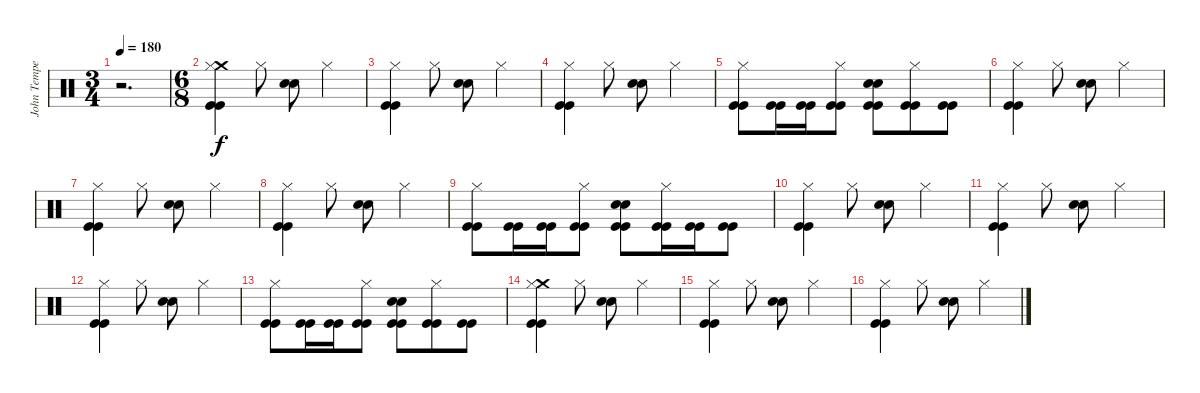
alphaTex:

\track ("John Tempesta" "John Tempe") {instrument percussion}
\staff {score}
\articulation defaults
\ts (3 4)
\tempo 180
\clef neutral
\ks c
r.2{d dy f} |
\ts (6 8)
("Crash medium (hit)" "Hi-Hat (closed)" "Kick (hit)" "Kick (hit)").4 "Hi-Hat (closed)".8 ("Snare (hit) 2" "Snare (hit) 2").8 "Hi-Hat (closed)".4 |
("Hi-Hat (closed)" "Kick (hit)" "Kick (hit)").4 "Hi-Hat (closed)".8 ("Snare (hit) 2" "Snare (hit) 2").8 "Hi-Hat (closed)".4 |
("Hi-Hat (closed)" "Kick (hit)" "Kick (hit)").4 "Hi-Hat (closed)".8 ("Snare (hit) 2" "Snare (hit) 2").8 "Hi-Hat (closed)".4 |
("Hi-Hat (closed)" "Kick (hit)" "Kick (hit)").8 ("Kick (hit)" "Kick (hit)").16 ("Kick (hit)" "Kick (hit)").16 ("Hi-Hat (closed)" "Kick (hit)" "Kick (hit)").8 ("Snare (hit) 2" "Snare (hit) 2" "Kick (hit)" "Kick (hit)").8 ("Hi-Hat (closed)" "Kick (hit)" "Kick (hit)").8 ("Kick (hit)" "Kick (hit)").8 |
("Hi-Hat (closed)" "Kick (hit)" "Kick (hit)").4 "Hi-Hat (closed)".8 ("Snare (hit) 2" "Snare (hit) 2").8 "Hi-Hat (closed)".4 |
("Hi-Hat (closed)" "Kick (hit)" "Kick (hit)").4 "Hi-Hat (closed)".8 ("Snare (hit) 2" "Snare (hit) 2").8 "Hi-Hat (closed)".4 |
("Hi-Hat (closed)" "Kick (hit)" "Kick (hit)").4 "Hi-Hat (closed)".8 ("Snare (hit) 2" "Snare (hit) 2").8 "Hi-Hat (closed)".4 |
("Hi-Hat (closed)" "Kick (hit)" "Kick (hit)").8 ("Kick (hit)" "Kick (hit)").16 ("Kick (hit)" "Kick (hit)").16 ("Hi-Hat (closed)" "Kick (hit)" "Kick (hit)").8 ("Snare (hit) 2" "Snare (hit) 2" "Kick (hit)" "Kick (hit)").8 ("Hi-Hat (closed)" "Kick (hit)" "Kick (hit)").16 ("Kick (hit)" "Kick (hit)").16 ("Kick (hit)" "Kick (hit)").8 |
("Hi-Hat (closed)" "Kick (hit)" "Kick (hit)").4 "Hi-Hat (closed)".8 ("Snare (hit) 2" "Snare (hit) 2").8 "Hi-Hat (closed)".4 |
("Hi-Hat (closed)" "Kick (hit)" "Kick (hit)").4 "Hi-Hat (closed)".8 ("Snare (hit) 2" "Snare (hit) 2").8 "Hi-Hat (closed)".4 |
("Hi-Hat (closed)" "Kick (hit)" "Kick (hit)").4 "Hi-Hat (closed)".8 ("Snare (hit) 2" "Snare (hit) 2").8 "Hi-Hat (closed)".4 |
("Hi-Hat (closed)" "Kick (hit)" "Kick (hit)").8 ("Kick (hit)" "Kick (hit)").16 ("Kick (hit)" "Kick (hit)").16 ("Hi-Hat (closed)" "Kick (hit)" "Kick (hit)").8 ("Snare (hit) 2" "Snare (hit) 2" "Kick (hit)" "Kick (hit)").8 ("Hi-Hat (closed)" "Kick (hit)" "Kick (hit)").8 ("Kick (hit)" "Kick (hit)").8 |
("Crash medium (hit)" "Hi-Hat (closed)" "Kick (hit)" "Kick (hit)").4 "Hi-Hat (closed)".8 ("Snare (hit) 2" "Snare (hit) 2").8 "Hi-Hat (closed)".4 |
("Hi-Hat (closed)" "Kick (hit)" "Kick (hit)").4 "Hi-Hat (closed)".8 ("Snare (hit) 2" "Snare (hit) 2").8 "Hi-Hat (closed)".4 |
("Hi-Hat (closed)" "Kick (hit)" "Kick (hit)").4 "Hi-Hat (closed)".8 ("Snare (hit) 2" "Snare (hit) 2").8 "Hi-Hat (closed)".4
